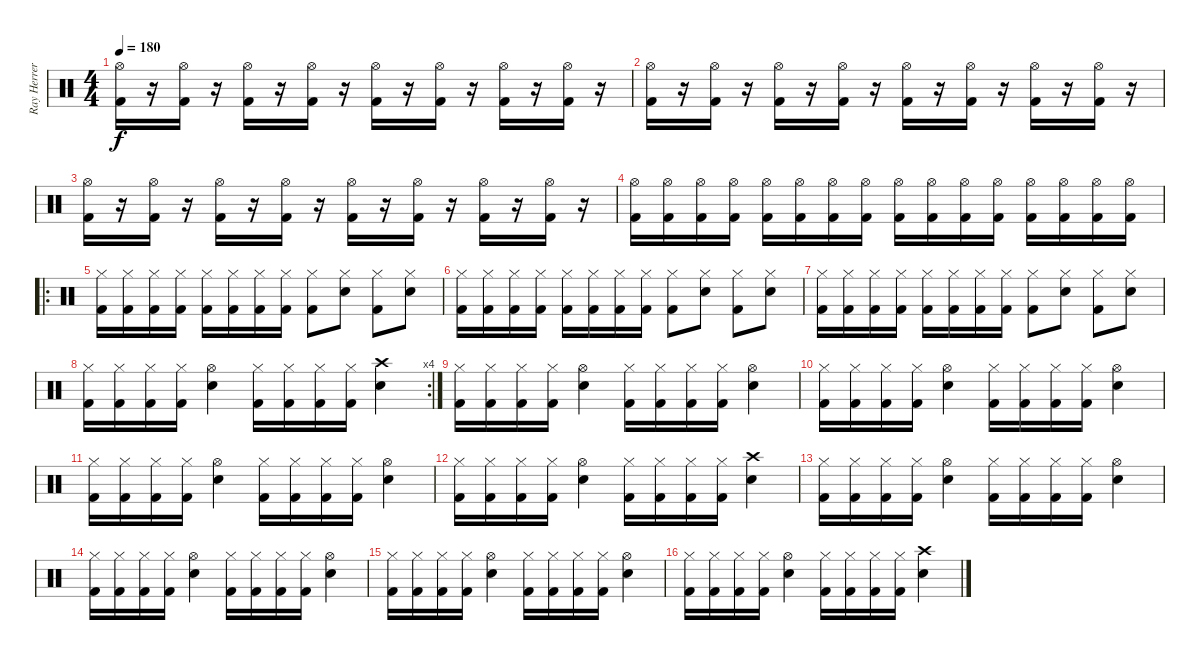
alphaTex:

\track ("Ray Herrera" "Ray Herrer") {instrument percussion}
\staff {score}
\articulation defaults
\ts (4 4)
\tempo 180
\clef neutral
\ks c
("Hi-Hat (open)" "Kick (hit) 2").16{dy f} r.16 ("Hi-Hat (open)" "Kick (hit) 2").16 r.16 ("Hi-Hat (open)" "Kick (hit) 2").16 r.16 ("Hi-Hat (open)" "Kick (hit) 2").16 r.16 ("Hi-Hat (open)" "Kick (hit) 2").16 r.16 ("Hi-Hat (open)" "Kick (hit) 2").16 r.16 ("Hi-Hat (open)" "Kick (hit) 2").16 r.16 ("Hi-Hat (open)" "Kick (hit) 2").16 r.16 |
("Hi-Hat (open)" "Kick (hit) 2").16 r.16 ("Hi-Hat (open)" "Kick (hit) 2").16 r.16 ("Hi-Hat (open)" "Kick (hit) 2").16 r.16 ("Hi-Hat (open)" "Kick (hit) 2").16 r.16 ("Hi-Hat (open)" "Kick (hit) 2").16 r.16 ("Hi-Hat (open)" "Kick (hit) 2").16 r.16 ("Hi-Hat (open)" "Kick (hit) 2").16 r.16 ("Hi-Hat (open)" "Kick (hit) 2").16 r.16 |
("Hi-Hat (open)" "Kick (hit) 2").16 r.16 ("Hi-Hat (open)" "Kick (hit) 2").16 r.16 ("Hi-Hat (open)" "Kick (hit) 2").16 r.16 ("Hi-Hat (open)" "Kick (hit) 2").16 r.16 ("Hi-Hat (open)" "Kick (hit) 2").16 r.16 ("Hi-Hat (open)" "Kick (hit) 2").16 r.16 ("Hi-Hat (open)" "Kick (hit) 2").16 r.16 ("Hi-Hat (open)" "Kick (hit) 2").16 r.16 |
("Hi-Hat (open)" "Kick (hit) 2").16 ("Hi-Hat (open)" "Kick (hit) 2").16 ("Hi-Hat (open)" "Kick (hit) 2").16 ("Hi-Hat (open)" "Kick (hit) 2").16 ("Hi-Hat (open)" "Kick (hit) 2").16 ("Hi-Hat (open)" "Kick (hit) 2").16 ("Hi-Hat (open)" "Kick (hit) 2").16 ("Hi-Hat (open)" "Kick (hit) 2").16 ("Hi-Hat (open)" "Kick (hit) 2").16 ("Hi-Hat (open)" "Kick (hit) 2").16 ("Hi-Hat (open)" "Kick (hit) 2").16 ("Hi-Hat (open)" "Kick (hit) 2").16 ("Hi-Hat (open)" "Kick (hit) 2").16 ("Hi-Hat (open)" "Kick (hit) 2").16 ("Hi-Hat (open)" "Kick (hit) 2").16 ("Hi-Hat (open)" "Kick (hit) 2").16 |
\ro
("Hi-Hat (closed)" "Kick (hit) 2").16 ("Hi-Hat (closed)" "Kick (hit) 2").16 ("Hi-Hat (closed)" "Kick (hit) 2").16 ("Hi-Hat (closed)" "Kick (hit) 2").16 ("Hi-Hat (closed)" "Kick (hit) 2").16 ("Hi-Hat (closed)" "Kick (hit) 2").16 ("Hi-Hat (closed)" "Kick (hit) 2").16 ("Hi-Hat (closed)" "Kick (hit) 2").16 ("Hi-Hat (closed)" "Kick (hit) 2").8 ("Hi-Hat (closed)" "Electric Snare (hit)").8 ("Hi-Hat (closed)" "Kick (hit) 2").8 ("Hi-Hat (closed)" "Electric Snare (hit)").8 |
("Hi-Hat (closed)" "Kick (hit) 2").16 ("Hi-Hat (closed)" "Kick (hit) 2").16 ("Hi-Hat (closed)" "Kick (hit) 2").16 ("Hi-Hat (closed)" "Kick (hit) 2").16 ("Hi-Hat (closed)" "Kick (hit) 2").16 ("Hi-Hat (closed)" "Kick (hit) 2").16 ("Hi-Hat (closed)" "Kick (hit) 2").16 ("Hi-Hat (closed)" "Kick (hit) 2").16 ("Hi-Hat (closed)" "Kick (hit) 2").8 ("Hi-Hat (closed)" "Electric Snare (hit)").8 ("Hi-Hat (closed)" "Kick (hit) 2").8 ("Hi-Hat (closed)" "Electric Snare (hit)").8 |
("Hi-Hat (closed)" "Kick (hit) 2").16 ("Hi-Hat (closed)" "Kick (hit) 2").16 ("Hi-Hat (closed)" "Kick (hit) 2").16 ("Hi-Hat (closed)" "Kick (hit) 2").16 ("Hi-Hat (closed)" "Kick (hit) 2").16 ("Hi-Hat (closed)" "Kick (hit) 2").16 ("Hi-Hat (closed)" "Kick (hit) 2").16 ("Hi-Hat (closed)" "Kick (hit) 2").16 ("Hi-Hat (closed)" "Kick (hit) 2").8 ("Hi-Hat (closed)" "Electric Snare (hit)").8 ("Hi-Hat (closed)" "Kick (hit) 2").8 ("Hi-Hat (closed)" "Electric Snare (hit)").8 |
\rc 4
("Hi-Hat (closed)" "Kick (hit) 2").16 ("Hi-Hat (closed)" "Kick (hit) 2").16 ("Hi-Hat (closed)" "Kick (hit) 2").16 ("Hi-Hat (closed)" "Kick (hit) 2").16 ("Hi-Hat (open)" "Electric Snare (hit)").4 ("Hi-Hat (closed)" "Kick (hit) 2").16 ("Hi-Hat (closed)" "Kick (hit) 2").16 ("Hi-Hat (closed)" "Kick (hit) 2").16 ("Hi-Hat (closed)" "Kick (hit) 2").16 ("Crash high (hit)" "Electric Snare (hit)").4 |
("Hi-Hat (closed)" "Kick (hit) 2").16 ("Hi-Hat (closed)" "Kick (hit) 2").16 ("Hi-Hat (closed)" "Kick (hit) 2").16 ("Hi-Hat (closed)" "Kick (hit) 2").16 ("Hi-Hat (open)" "Electric Snare (hit)").4 ("Hi-Hat (closed)" "Kick (hit) 2").16 ("Hi-Hat (closed)" "Kick (hit) 2").16 ("Hi-Hat (closed)" "Kick (hit) 2").16 ("Hi-Hat (closed)" "Kick (hit) 2").16 ("Hi-Hat (open)" "Electric Snare (hit)").4 |
("Hi-Hat (closed)" "Kick (hit) 2").16 ("Hi-Hat (closed)" "Kick (hit) 2").16 ("Hi-Hat (closed)" "Kick (hit) 2").16 ("Hi-Hat (closed)" "Kick (hit) 2").16 ("Hi-Hat (open)" "Electric Snare (hit)").4 ("Hi-Hat (closed)" "Kick (hit) 2").16 ("Hi-Hat (closed)" "Kick (hit) 2").16 ("Hi-Hat (closed)" "Kick (hit) 2").16 ("Hi-Hat (closed)" "Kick (hit) 2").16 ("Hi-Hat (open)" "Electric Snare (hit)").4 |
("Hi-Hat (closed)" "Kick (hit) 2").16 ("Hi-Hat (closed)" "Kick (hit) 2").16 ("Hi-Hat (closed)" "Kick (hit) 2").16 ("Hi-Hat (closed)" "Kick (hit) 2").16 ("Hi-Hat (open)" "Electric Snare (hit)").4 ("Hi-Hat (closed)" "Kick (hit) 2").16 ("Hi-Hat (closed)" "Kick (hit) 2").16 ("Hi-Hat (closed)" "Kick (hit) 2").16 ("Hi-Hat (closed)" "Kick (hit) 2").16 ("Hi-Hat (open)" "Electric Snare (hit)").4 |
("Hi-Hat (closed)" "Kick (hit) 2").16 ("Hi-Hat (closed)" "Kick (hit) 2").16 ("Hi-Hat (closed)" "Kick (hit) 2").16 ("Hi-Hat (closed)" "Kick (hit) 2").16 ("Hi-Hat (open)" "Electric Snare (hit)").4 ("Hi-Hat (closed)" "Kick (hit) 2").16 ("Hi-Hat (closed)" "Kick (hit) 2").16 ("Hi-Hat (closed)" "Kick (hit) 2").16 ("Hi-Hat (closed)" "Kick (hit) 2").16 ("Crash high (hit)" "Electric Snare (hit)").4 |
("Hi-Hat (closed)" "Kick (hit) 2").16 ("Hi-Hat (closed)" "Kick (hit) 2").16 ("Hi-Hat (closed)" "Kick (hit) 2").16 ("Hi-Hat (closed)" "Kick (hit) 2").16 ("Hi-Hat (open)" "Electric Snare (hit)").4 ("Hi-Hat (closed)" "Kick (hit) 2").16 ("Hi-Hat (closed)" "Kick (hit) 2").16 ("Hi-Hat (closed)" "Kick (hit) 2").16 ("Hi-Hat (closed)" "Kick (hit) 2").16 ("Hi-Hat (open)" "Electric Snare (hit)").4 |
("Hi-Hat (closed)" "Kick (hit) 2").16 ("Hi-Hat (closed)" "Kick (hit) 2").16 ("Hi-Hat (closed)" "Kick (hit) 2").16 ("Hi-Hat (closed)" "Kick (hit) 2").16 ("Hi-Hat (open)" "Electric Snare (hit)").4 ("Hi-Hat (closed)" "Kick (hit) 2").16 ("Hi-Hat (closed)" "Kick (hit) 2").16 ("Hi-Hat (closed)" "Kick (hit) 2").16 ("Hi-Hat (closed)" "Kick (hit) 2").16 ("Hi-Hat (open)" "Electric Snare (hit)").4 |
("Hi-Hat (closed)" "Kick (hit) 2").16 ("Hi-Hat (closed)" "Kick (hit) 2").16 ("Hi-Hat (closed)" "Kick (hit) 2").16 ("Hi-Hat (closed)" "Kick (hit) 2").16 ("Hi-Hat (open)" "Electric Snare (hit)").4 ("Hi-Hat (closed)" "Kick (hit) 2").16 ("Hi-Hat (closed)" "Kick (hit) 2").16 ("Hi-Hat (closed)" "Kick (hit) 2").16 ("Hi-Hat (closed)" "Kick (hit) 2").16 ("Hi-Hat (open)" "Electric Snare (hit)").4 |
("Hi-Hat (closed)" "Kick (hit) 2").16 ("Hi-Hat (closed)" "Kick (hit) 2").16 ("Hi-Hat (closed)" "Kick (hit) 2").16 ("Hi-Hat (closed)" "Kick (hit) 2").16 ("Hi-Hat (open)" "Electric Snare (hit)").4 ("Hi-Hat (closed)" "Kick (hit) 2").16 ("Hi-Hat (closed)" "Kick (hit) 2").16 ("Hi-Hat (closed)" "Kick (hit) 2").16 ("Hi-Hat (closed)" "Kick (hit) 2").16 ("Crash high (hit)" "Electric Snare (hit)").4
